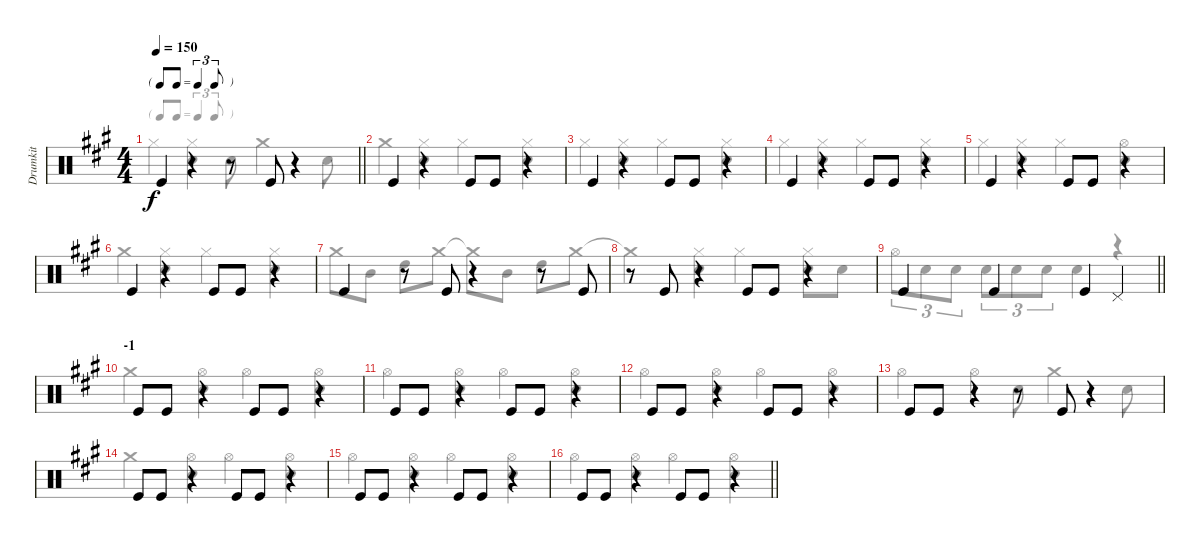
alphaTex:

\track ("Drumkit" "Drumkit") {instrument percussion}
\staff {score}
\articulation defaults
\voice
\ts (4 4)
\tf triplet8th
\tempo 150
\clef neutral
\barLineRight lightlight
\ks a "Kick (hit)".4{dy f}
r.4 r.8 "Kick (hit)".8 r.4 |
\section ("" "")
"Kick (hit)".4 r.4 "Kick (hit)".8 "Kick (hit)".8 r.4 |
"Kick (hit)".4 r.4 "Kick (hit)".8 "Kick (hit)".8 r.4 |
"Kick (hit)".4 r.4 "Kick (hit)".8 "Kick (hit)".8 r.4 |
"Kick (hit)".4 r.4 "Kick (hit)".8 "Kick (hit)".8 r.4 |
"Kick (hit)".4 r.4 "Kick (hit)".8 "Kick (hit)".8 r.4 |
"Kick (hit)".4 r.8 "Kick (hit)".8 r.4 r.8 "Kick (hit)".8 |
r.8 "Kick (hit)".8 r.4 "Kick (hit)".8 "Kick (hit)".8 r.4 |
\barLineRight lightlight "Kick (hit)".4 "Kick (hit)".4 "Kick (hit)".4 "Pedal Hi-Hat (hit)".4
|
\section ("" "-1")
"Kick (hit)".8 "Kick (hit)".8 r.4 "Kick (hit)".8 "Kick (hit)".8 r.4 |
"Kick (hit)".8 "Kick (hit)".8 r.4 "Kick (hit)".8 "Kick (hit)".8 r.4 |
"Kick (hit)".8 "Kick (hit)".8 r.4 "Kick (hit)".8 "Kick (hit)".8 r.4 |
"Kick (hit)".8 "Kick (hit)".8 r.4 r.8 "Kick (hit)".8 r.4 |
"Kick (hit)".8 "Kick (hit)".8 r.4 "Kick (hit)".8 "Kick (hit)".8 r.4 |
"Kick (hit)".8 "Kick (hit)".8 r.4 "Kick (hit)".8 "Kick (hit)".8 r.4 |
\barLineRight lightlight "Kick (hit)".8 "Kick (hit)".8
r.4 "Kick (hit)".8 "Kick (hit)".8 r.4
\voice
\clef neutral
\ottava regular
\simile none
\barLineRight lightlight
\ks a "Hi-Hat (closed)".4{dy f}
("Hi-Hat (closed)" "Snare (hit) 2").4 "Snare (hit) 2".8 "Crash medium (hit)".4 "Snare (hit) 2".8 |
"Crash medium (hit)".4 ("Hi-Hat (closed)" "Snare (hit) 2").4 "Hi-Hat (closed)".4 ("Hi-Hat (closed)" "Snare (hit) 2").4 |
"Hi-Hat (closed)".4 ("Hi-Hat (closed)" "Snare (hit) 2").4 "Hi-Hat (closed)".4 ("Hi-Hat (closed)" "Snare (hit) 2").4 |
"Hi-Hat (closed)".4 ("Hi-Hat (closed)" "Snare (hit) 2").4 "Hi-Hat (closed)".4 ("Hi-Hat (closed)" "Snare (hit) 2").4 |
"Hi-Hat (closed)".4 ("Hi-Hat (closed)" "Snare (hit) 2").4 "Hi-Hat (closed)".4 ("Hi-Hat (open)" "Snare (hit) 2").4 |
"Crash medium (hit)".4 ("Hi-Hat (closed)" "Snare (hit) 2").4 "Hi-Hat (closed)".4 ("Hi-Hat (closed)" "Snare (hit) 2").4 |
"Crash medium (hit)".8 "Mid Tom (hit)".8 "High Tom (hit)".8 "Crash medium (hit)".8 "Crash medium (hit)"{t}.8 "Mid Tom (hit)".8 "High Tom (hit)".8 "Crash medium (hit)".8 |
"Crash medium (hit)"{t}.4 ("Snare (hit) 2" "Hi-Hat (closed)").4 "Hi-Hat (closed)".4 ("Hi-Hat (closed)" "Snare (hit) 2").8 "Snare (hit) 2".8 |
\barLineRight lightlight "Hi-Hat (open)".8{tu (3 2)} "Snare (hit) 2".8{tu (3 2)} "Snare (hit) 2".8{tu (3 2)} "Snare (hit) 2".8{tu (3 2)} "Snare (hit) 2".8{tu (3 2)} "Snare (hit) 2".8{tu (3 2)} "Snare (hit) 2".4
r.4 |
"Crash medium (hit)".4 ("Hi-Hat (open)" "Snare (hit) 2").4 "Hi-Hat (open)".4 ("Hi-Hat (open)" "Snare (hit) 2").4 |
"Hi-Hat (open)".4 ("Hi-Hat (open)" "Snare (hit) 2").4 "Hi-Hat (open)".4 ("Hi-Hat (open)" "Snare (hit) 2").4 |
"Hi-Hat (open)".4 ("Hi-Hat (open)" "Snare (hit) 2").4 "Hi-Hat (open)".4 ("Hi-Hat (open)" "Snare (hit) 2").4 |
"Hi-Hat (open)".4 "Hi-Hat (open)".4 "Snare (hit) 2".8 "Crash medium (hit)".4 "Snare (hit) 2".8 |
"Crash medium (hit)".4 ("Hi-Hat (open)" "Snare (hit) 2").4 "Hi-Hat (open)".4 ("Hi-Hat (open)" "Snare (hit) 2").4 |
"Hi-Hat (open)".4 ("Hi-Hat (open)" "Snare (hit) 2").4 "Hi-Hat (open)".4 ("Hi-Hat (open)" "Snare (hit) 2").4 |
\barLineRight lightlight "Hi-Hat (open)".4
("Hi-Hat (open)" "Snare (hit) 2").4 "Hi-Hat (open)".4 ("Hi-Hat (open)" "Snare (hit) 2").4
